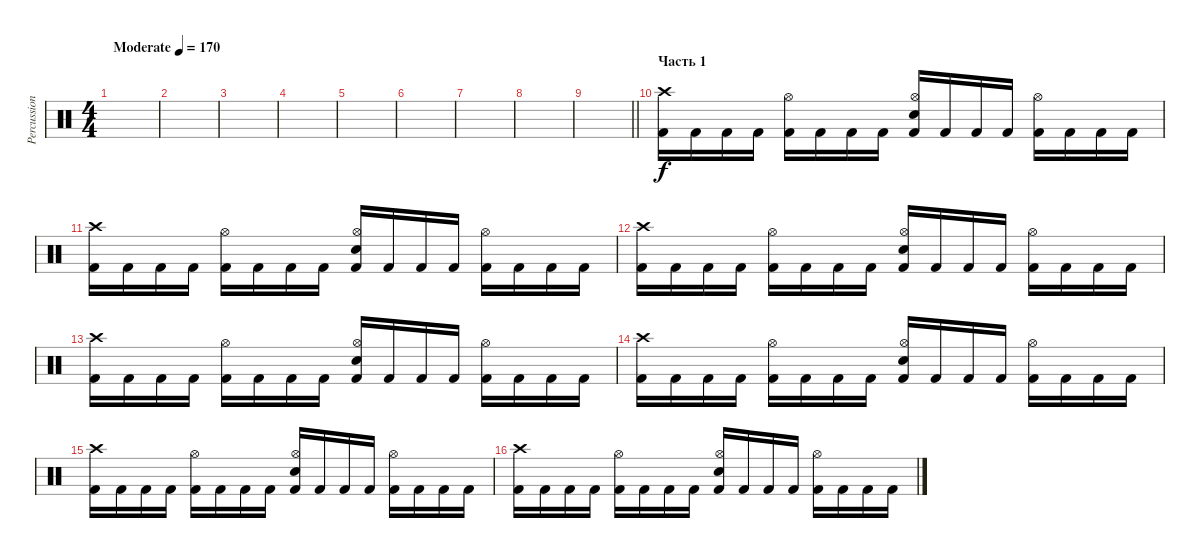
\track ("Percussion" "Percussion") {instrument percussion}
\staff {score}
\articulation defaults
\ts (4 4)
\tempo (170 "Moderate")
\clef neutral
\ks c
|
|
|
|
|
|
|
|
\barLineRight lightlight
|
\section ("" "Часть 1")
("Crash high (hit)" "Kick (hit) 2").16 "Kick (hit) 2".16 "Kick (hit) 2".16 "Kick (hit) 2".16 ("Hi-Hat (open)" "Kick (hit) 2").16 "Kick (hit) 2".16 "Kick (hit) 2".16 "Kick (hit) 2".16 ("Hi-Hat (open)" "Snare (hit) 2" "Kick (hit) 2").16 "Kick (hit) 2".16 "Kick (hit) 2".16 "Kick (hit) 2".16 ("Hi-Hat (open)" "Kick (hit) 2").16 "Kick (hit) 2".16 "Kick (hit) 2".16 "Kick (hit) 2".16 |
("Crash high (hit)" "Kick (hit) 2").16 "Kick (hit) 2".16 "Kick (hit) 2".16 "Kick (hit) 2".16 ("Hi-Hat (open)" "Kick (hit) 2").16 "Kick (hit) 2".16 "Kick (hit) 2".16 "Kick (hit) 2".16 ("Hi-Hat (open)" "Snare (hit) 2" "Kick (hit) 2").16 "Kick (hit) 2".16 "Kick (hit) 2".16 "Kick (hit) 2".16 ("Hi-Hat (open)" "Kick (hit) 2").16 "Kick (hit) 2".16 "Kick (hit) 2".16 "Kick (hit) 2".16 |
("Crash high (hit)" "Kick (hit) 2").16 "Kick (hit) 2".16 "Kick (hit) 2".16 "Kick (hit) 2".16 ("Hi-Hat (open)" "Kick (hit) 2").16 "Kick (hit) 2".16 "Kick (hit) 2".16 "Kick (hit) 2".16 ("Hi-Hat (open)" "Snare (hit) 2" "Kick (hit) 2").16 "Kick (hit) 2".16 "Kick (hit) 2".16 "Kick (hit) 2".16 ("Hi-Hat (open)" "Kick (hit) 2").16 "Kick (hit) 2".16 "Kick (hit) 2".16 "Kick (hit) 2".16 |
("Crash high (hit)" "Kick (hit) 2").16 "Kick (hit) 2".16 "Kick (hit) 2".16 "Kick (hit) 2".16 ("Hi-Hat (open)" "Kick (hit) 2").16 "Kick (hit) 2".16 "Kick (hit) 2".16 "Kick (hit) 2".16 ("Hi-Hat (open)" "Snare (hit) 2" "Kick (hit) 2").16 "Kick (hit) 2".16 "Kick (hit) 2".16 "Kick (hit) 2".16 ("Hi-Hat (open)" "Kick (hit) 2").16 "Kick (hit) 2".16 "Kick (hit) 2".16 "Kick (hit) 2".16 |
("Crash high (hit)" "Kick (hit) 2").16 "Kick (hit) 2".16 "Kick (hit) 2".16 "Kick (hit) 2".16 ("Hi-Hat (open)" "Kick (hit) 2").16 "Kick (hit) 2".16 "Kick (hit) 2".16 "Kick (hit) 2".16 ("Hi-Hat (open)" "Snare (hit) 2" "Kick (hit) 2").16 "Kick (hit) 2".16 "Kick (hit) 2".16 "Kick (hit) 2".16 ("Hi-Hat (open)" "Kick (hit) 2").16 "Kick (hit) 2".16 "Kick (hit) 2".16 "Kick (hit) 2".16 |
("Crash high (hit)" "Kick (hit) 2").16 "Kick (hit) 2".16 "Kick (hit) 2".16 "Kick (hit) 2".16 ("Hi-Hat (open)" "Kick (hit) 2").16 "Kick (hit) 2".16 "Kick (hit) 2".16 "Kick (hit) 2".16 ("Hi-Hat (open)" "Snare (hit) 2" "Kick (hit) 2").16 "Kick (hit) 2".16 "Kick (hit) 2".16 "Kick (hit) 2".16 ("Hi-Hat (open)" "Kick (hit) 2").16 "Kick (hit) 2".16 "Kick (hit) 2".16 "Kick (hit) 2".16 |
("Crash high (hit)" "Kick (hit) 2").16 "Kick (hit) 2".16 "Kick (hit) 2".16 "Kick (hit) 2".16 ("Hi-Hat (open)" "Kick (hit) 2").16 "Kick (hit) 2".16 "Kick (hit) 2".16 "Kick (hit) 2".16 ("Hi-Hat (open)" "Snare (hit) 2" "Kick (hit) 2").16 "Kick (hit) 2".16 "Kick (hit) 2".16 "Kick (hit) 2".16 ("Hi-Hat (open)" "Kick (hit) 2").16 "Kick (hit) 2".16 "Kick (hit) 2".16 "Kick (hit) 2".16
